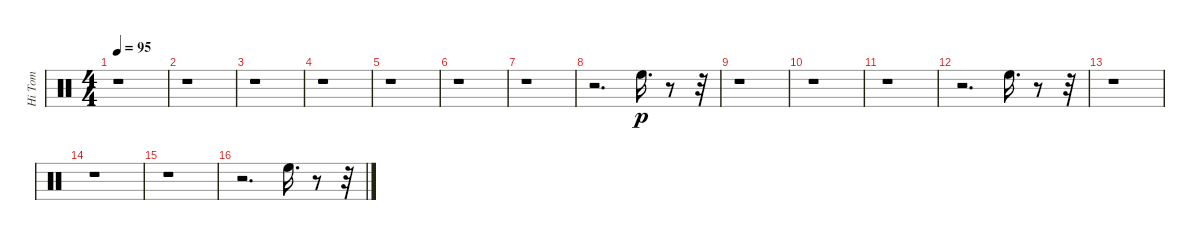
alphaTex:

\track ("Hi Tom" "Hi Tom") {instrument percussion}
\staff {score}
\articulation defaults
\ts (4 4)
\tempo 95
\clef neutral
\ks c
r.1{dy p} |
r.1 |
r.1 |
r.1 |
r.1 |
r.1 |
r.1 |
r.2{d} "High Floor Tom (hit)".16{d} r.8 r.32 |
r.1 |
r.1 |
r.1 |
r.2{d} "High Floor Tom (hit)".16{d} r.8 r.32 |
r.1 |
r.1 |
r.1 |
r.2{d} "High Floor Tom (hit)".16{d} r.8 r.32
